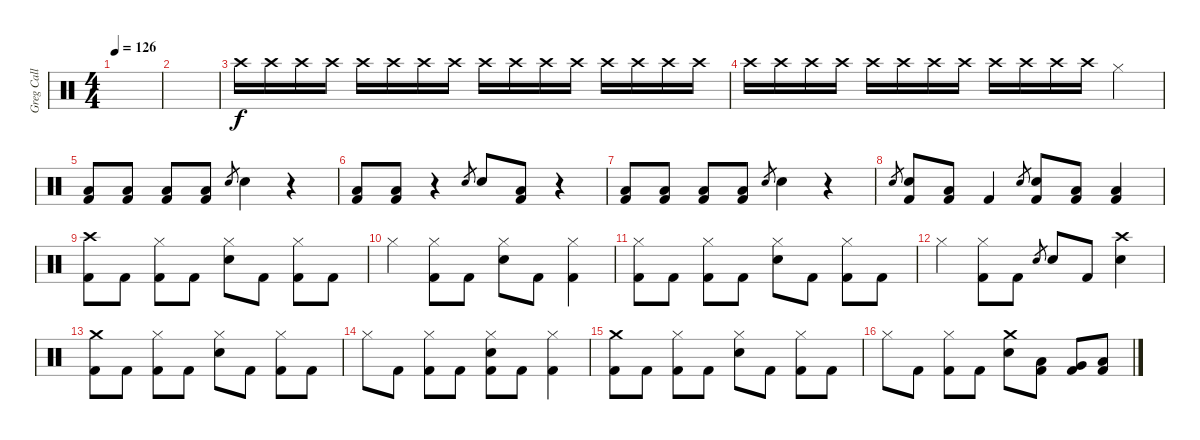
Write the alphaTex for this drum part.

\track ("Greg Call (Drums)" "Greg Call ") {instrument percussion}
\staff {score}
\articulation defaults
\ts (4 4)
\tempo 126
\clef neutral
\ks c
|
|
"Crash high (hit)".16{volume 4} "Crash high (hit)".16 "Crash high (hit)".16 "Crash high (hit)".16 "Crash high (hit)".16{volume 7} "Crash high (hit)".16 "Crash high (hit)".16 "Crash high (hit)".16 "Crash high (hit)".16{volume 9} "Crash high (hit)".16 "Crash high (hit)".16 "Crash high (hit)".16 "Crash high (hit)".16{volume 10} "Crash high (hit)".16 "Crash high (hit)".16 "Crash high (hit)".16 |
"Crash high (hit)".16{volume 11} "Crash high (hit)".16 "Crash high (hit)".16 "Crash high (hit)".16 "Crash high (hit)".16{volume 13} "Crash high (hit)".16 "Crash high (hit)".16 "Crash high (hit)".16 "Crash high (hit)".16 "Crash high (hit)".16 "Crash high (hit)".16 "Crash high (hit)".16 "Hi-Hat (closed)".4 |
("Low Floor Tom (hit)" "Kick (hit) 2").8 ("Low Floor Tom (hit)" "Kick (hit) 2").8 ("Low Floor Tom (hit)" "Kick (hit) 2").8 ("Low Floor Tom (hit)" "Kick (hit) 2").8 "Snare (hit) 2".8{gr} "Snare (hit) 2".4 r.4 |
("Low Floor Tom (hit)" "Kick (hit) 2").8 ("Low Floor Tom (hit)" "Kick (hit) 2").8 r.4 "Snare (hit) 2".8{gr} "Snare (hit) 2".8 ("Low Floor Tom (hit)" "Kick (hit) 2").8 r.4 |
("Low Floor Tom (hit)" "Kick (hit) 2").8 ("Low Floor Tom (hit)" "Kick (hit) 2").8 ("Low Floor Tom (hit)" "Kick (hit) 2").8 ("Low Floor Tom (hit)" "Kick (hit) 2").8 "Snare (hit) 2".8{gr} "Snare (hit) 2".4 r.4 |
"Snare (hit) 2".8{gr} ("Snare (hit) 2" "Kick (hit) 2").8 ("Low Floor Tom (hit)" "Kick (hit) 2").8 "Kick (hit) 2".4 "Snare (hit) 2".8{gr} ("Snare (hit) 2" "Kick (hit) 2").8 ("Low Floor Tom (hit)" "Kick (hit) 2").8 ("Low Floor Tom (hit)" "Kick (hit) 2").4 |
("Crash high (hit)" "Kick (hit) 2").8 "Kick (hit) 2".8 ("Hi-Hat (closed)" "Kick (hit) 2").8 "Kick (hit) 2".8 ("Hi-Hat (closed)" "Snare (hit) 2").8 "Kick (hit) 2".8 ("Hi-Hat (closed)" "Kick (hit) 2").8 "Kick (hit) 2".8 |
"Hi-Hat (closed)".4 ("Hi-Hat (closed)" "Kick (hit) 2").8 "Kick (hit) 2".8 ("Hi-Hat (closed)" "Snare (hit) 2").8 "Kick (hit) 2".8 ("Hi-Hat (closed)" "Kick (hit) 2").4 |
("Hi-Hat (closed)" "Kick (hit) 2").8 "Kick (hit) 2".8 ("Hi-Hat (closed)" "Kick (hit) 2").8 "Kick (hit) 2".8 ("Hi-Hat (closed)" "Snare (hit) 2").8 "Kick (hit) 2".8 ("Hi-Hat (closed)" "Kick (hit) 2").8 "Kick (hit) 2".8 |
"Hi-Hat (closed)".4 ("Hi-Hat (closed)" "Kick (hit) 2").8 "Kick (hit) 2".8 "Snare (hit) 2".8{gr} "Snare (hit) 2".8 "Kick (hit) 2".8 ("Crash high (hit)" "Snare (hit) 2").4 |
("Crash medium (hit)" "Kick (hit) 2").8 "Kick (hit) 2".8 ("Hi-Hat (closed)" "Kick (hit) 2").8 "Kick (hit) 2".8 ("Hi-Hat (closed)" "Snare (hit) 2").8 "Kick (hit) 2".8 ("Hi-Hat (closed)" "Kick (hit) 2").8 "Kick (hit) 2".8 |
"Hi-Hat (closed)".8 "Kick (hit) 2".8 ("Hi-Hat (closed)" "Kick (hit) 2").8 "Kick (hit) 2".8 ("Snare (hit) 2" "Hi-Hat (closed)" "Kick (hit) 2").8 "Kick (hit) 2".8 ("Hi-Hat (closed)" "Kick (hit) 2").4 |
("Crash medium (hit)" "Kick (hit) 2").8 "Kick (hit) 2".8 ("Hi-Hat (closed)" "Kick (hit) 2").8 "Kick (hit) 2".8 ("Hi-Hat (closed)" "Snare (hit) 2").8 "Kick (hit) 2".8 ("Hi-Hat (closed)" "Kick (hit) 2").8 "Kick (hit) 2".8 |
"Hi-Hat (closed)".8 "Kick (hit) 2".8 ("Hi-Hat (closed)" "Kick (hit) 2").8 "Kick (hit) 2".8 ("Snare (hit) 2" "Crash medium (hit)").8 ("Low Tom (hit)" "Kick (hit) 2").8 ("Very Low Tom (hit)" "Kick (hit) 2").8 ("Low Floor Tom (hit)" "Kick (hit) 2").8
